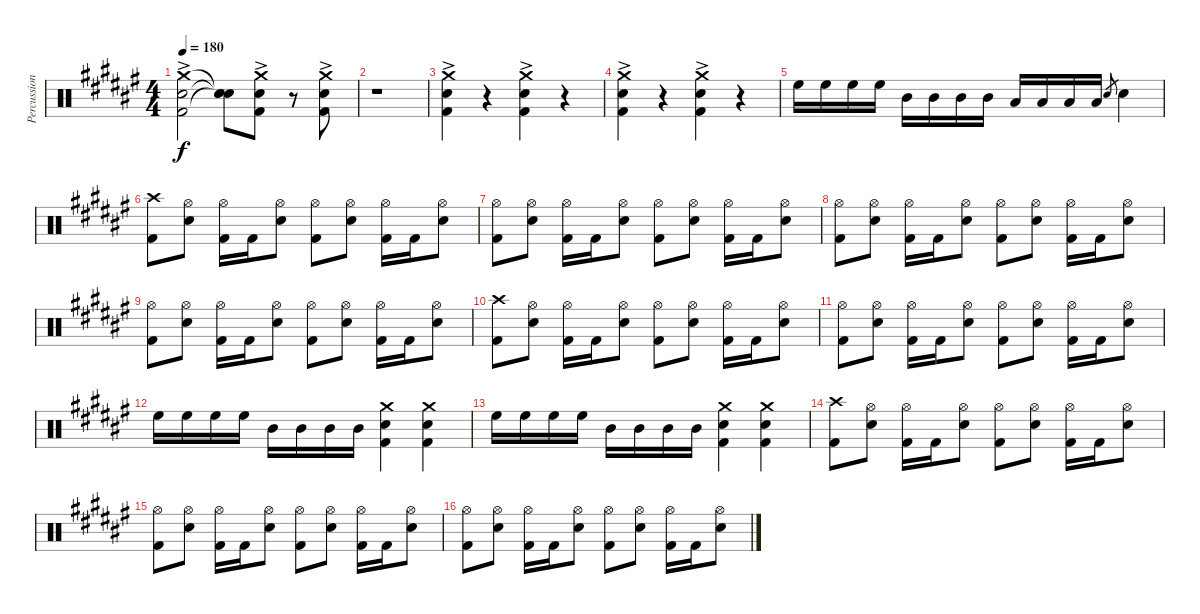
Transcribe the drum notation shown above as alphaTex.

\track ("Percussion" "Percussion") {instrument percussion}
\staff {score}
\articulation defaults
\ts (4 4)
\tempo 180
\clef neutral
\ks f#
("Crash medium (hit)"{ac} "Snare (hit) 2"{ac} "Kick (hit) 2"{ac}).2{dy f} ("Snare (hit)"{t} "Snare (hit)"{t} "Snare (hit)"{t}).8 ("Crash medium (hit)"{ac} "Snare (hit) 2"{ac} "Kick (hit) 2"{ac}).8 r.8 ("Crash medium (hit)"{ac} "Snare (hit) 2"{ac} "Kick (hit) 2"{ac}).8 |
r.1 |
("Crash medium (hit)"{ac} "Snare (hit) 2"{ac} "Kick (hit) 2"{ac}).4 r.4 ("Crash medium (hit)"{ac} "Snare (hit) 2"{ac} "Kick (hit) 2"{ac}).4 r.4 |
("Crash medium (hit)"{ac} "Snare (hit) 2"{ac} "Kick (hit) 2"{ac}).4 r.4 ("Crash medium (hit)"{ac} "Snare (hit) 2"{ac} "Kick (hit) 2"{ac}).4 r.4 |
"High Floor Tom (hit)".16 "High Floor Tom (hit)".16 "High Floor Tom (hit)".16 "High Floor Tom (hit)".16 "Mid Tom (hit)".16 "Mid Tom (hit)".16 "Mid Tom (hit)".16 "Mid Tom (hit)".16 "Low Floor Tom (hit)".16 "Low Floor Tom (hit)".16 "Low Floor Tom (hit)".16 "Low Floor Tom (hit)".16 "Snare (hit) 2".8{gr} "Snare (hit) 2".4 |
("Crash high (hit)" "Kick (hit) 2").8 ("Hi-Hat (open)" "Snare (hit) 2").8 ("Hi-Hat (open)" "Kick (hit) 2").16 "Kick (hit) 2".16 ("Hi-Hat (open)" "Snare (hit) 2").8 ("Hi-Hat (open)" "Kick (hit) 2").8 ("Hi-Hat (open)" "Snare (hit) 2").8 ("Hi-Hat (open)" "Kick (hit) 2").16 "Kick (hit) 2".16 ("Hi-Hat (open)" "Snare (hit) 2").8 |
("Hi-Hat (open)" "Kick (hit) 2").8 ("Hi-Hat (open)" "Snare (hit) 2").8 ("Hi-Hat (open)" "Kick (hit) 2").16 "Kick (hit) 2".16 ("Hi-Hat (open)" "Snare (hit) 2").8 ("Hi-Hat (open)" "Kick (hit) 2").8 ("Hi-Hat (open)" "Snare (hit) 2").8 ("Hi-Hat (open)" "Kick (hit) 2").16 "Kick (hit) 2".16 ("Hi-Hat (open)" "Snare (hit) 2").8 |
("Hi-Hat (open)" "Kick (hit) 2").8 ("Hi-Hat (open)" "Snare (hit) 2").8 ("Hi-Hat (open)" "Kick (hit) 2").16 "Kick (hit) 2".16 ("Hi-Hat (open)" "Snare (hit) 2").8 ("Hi-Hat (open)" "Kick (hit) 2").8 ("Hi-Hat (open)" "Snare (hit) 2").8 ("Hi-Hat (open)" "Kick (hit) 2").16 "Kick (hit) 2".16 ("Hi-Hat (open)" "Snare (hit) 2").8 |
("Hi-Hat (open)" "Kick (hit) 2").8 ("Hi-Hat (open)" "Snare (hit) 2").8 ("Hi-Hat (open)" "Kick (hit) 2").16 "Kick (hit) 2".16 ("Hi-Hat (open)" "Snare (hit) 2").8 ("Hi-Hat (open)" "Kick (hit) 2").8 ("Hi-Hat (open)" "Snare (hit) 2").8 ("Hi-Hat (open)" "Kick (hit) 2").16 "Kick (hit) 2".16 ("Hi-Hat (open)" "Snare (hit) 2").8 |
("Crash high (hit)" "Kick (hit) 2").8 ("Hi-Hat (open)" "Snare (hit) 2").8 ("Hi-Hat (open)" "Kick (hit) 2").16 "Kick (hit) 2".16 ("Hi-Hat (open)" "Snare (hit) 2").8 ("Hi-Hat (open)" "Kick (hit) 2").8 ("Hi-Hat (open)" "Snare (hit) 2").8 ("Hi-Hat (open)" "Kick (hit) 2").16 "Kick (hit) 2".16 ("Hi-Hat (open)" "Snare (hit) 2").8 |
("Hi-Hat (open)" "Kick (hit) 2").8 ("Hi-Hat (open)" "Snare (hit) 2").8 ("Hi-Hat (open)" "Kick (hit) 2").16 "Kick (hit) 2".16 ("Hi-Hat (open)" "Snare (hit) 2").8 ("Hi-Hat (open)" "Kick (hit) 2").8 ("Hi-Hat (open)" "Snare (hit) 2").8 ("Hi-Hat (open)" "Kick (hit) 2").16 "Kick (hit) 2".16 ("Hi-Hat (open)" "Snare (hit) 2").8 |
"High Floor Tom (hit)".16 "High Floor Tom (hit)".16 "High Floor Tom (hit)".16 "High Floor Tom (hit)".16 "Mid Tom (hit)".16 "Mid Tom (hit)".16 "Mid Tom (hit)".16 "Mid Tom (hit)".16 ("Crash medium (hit)" "Snare (hit) 2" "Kick (hit) 2").4 ("Crash medium (hit)" "Snare (hit) 2" "Kick (hit) 2").4 |
"High Floor Tom (hit)".16 "High Floor Tom (hit)".16 "High Floor Tom (hit)".16 "High Floor Tom (hit)".16 "Mid Tom (hit)".16 "Mid Tom (hit)".16 "Mid Tom (hit)".16 "Mid Tom (hit)".16 ("Crash medium (hit)" "Snare (hit) 2" "Kick (hit) 2").4 ("Crash medium (hit)" "Snare (hit) 2" "Kick (hit) 2").4 |
("Crash high (hit)" "Kick (hit) 2").8 ("Hi-Hat (open)" "Snare (hit) 2").8 ("Hi-Hat (open)" "Kick (hit) 2").16 "Kick (hit) 2".16 ("Hi-Hat (open)" "Snare (hit) 2").8 ("Hi-Hat (open)" "Kick (hit) 2").8 ("Hi-Hat (open)" "Snare (hit) 2").8 ("Hi-Hat (open)" "Kick (hit) 2").16 "Kick (hit) 2".16 ("Hi-Hat (open)" "Snare (hit) 2").8 |
("Hi-Hat (open)" "Kick (hit) 2").8 ("Hi-Hat (open)" "Snare (hit) 2").8 ("Hi-Hat (open)" "Kick (hit) 2").16 "Kick (hit) 2".16 ("Hi-Hat (open)" "Snare (hit) 2").8 ("Hi-Hat (open)" "Kick (hit) 2").8 ("Hi-Hat (open)" "Snare (hit) 2").8 ("Hi-Hat (open)" "Kick (hit) 2").16 "Kick (hit) 2".16 ("Hi-Hat (open)" "Snare (hit) 2").8 |
("Hi-Hat (open)" "Kick (hit) 2").8 ("Hi-Hat (open)" "Snare (hit) 2").8 ("Hi-Hat (open)" "Kick (hit) 2").16 "Kick (hit) 2".16 ("Hi-Hat (open)" "Snare (hit) 2").8 ("Hi-Hat (open)" "Kick (hit) 2").8 ("Hi-Hat (open)" "Snare (hit) 2").8 ("Hi-Hat (open)" "Kick (hit) 2").16 "Kick (hit) 2".16 ("Hi-Hat (open)" "Snare (hit) 2").8
